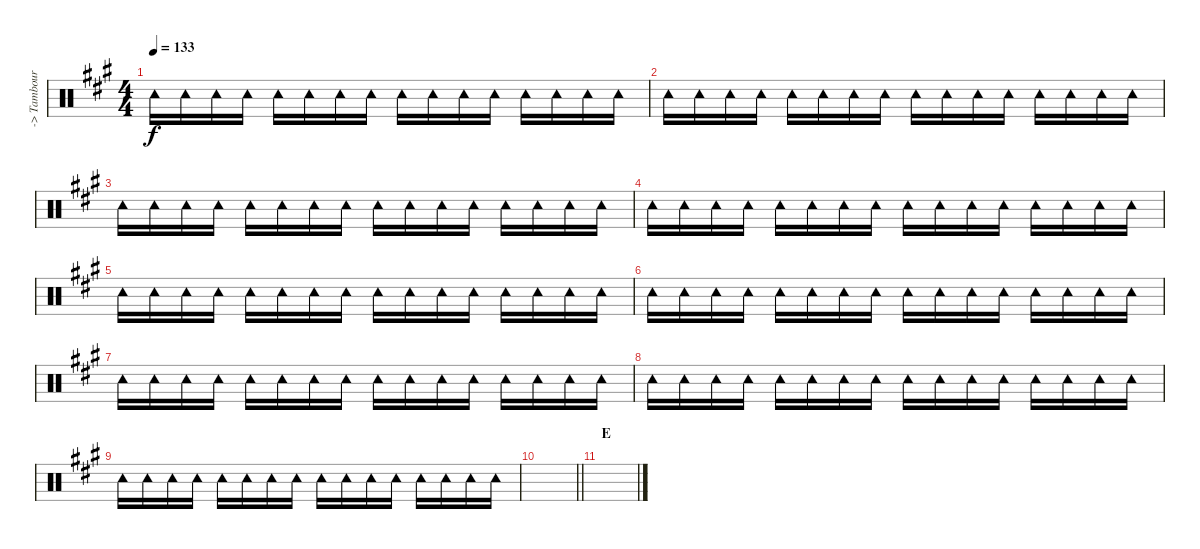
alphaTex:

\track ("-> Tambourine" "-> Tambour") {instrument percussion}
\staff {score}
\articulation defaults
\ts (4 4)
\tempo 133
\clef neutral
\ks a "Tambourine (hit)".16{dy f} "Tambourine (hit)".16 "Tambourine (hit)".16 "Tambourine (hit)".16 "Tambourine (hit)".16 "Tambourine (hit)".16 "Tambourine (hit)".16 "Tambourine (hit)".16 "Tambourine (hit)".16 "Tambourine (hit)".16 "Tambourine (hit)".16 "Tambourine (hit)".16 "Tambourine (hit)".16 "Tambourine (hit)".16 "Tambourine (hit)".16 "Tambourine (hit)".16
|
"Tambourine (hit)".16 "Tambourine (hit)".16 "Tambourine (hit)".16 "Tambourine (hit)".16 "Tambourine (hit)".16 "Tambourine (hit)".16 "Tambourine (hit)".16 "Tambourine (hit)".16 "Tambourine (hit)".16 "Tambourine (hit)".16 "Tambourine (hit)".16 "Tambourine (hit)".16 "Tambourine (hit)".16 "Tambourine (hit)".16 "Tambourine (hit)".16 "Tambourine (hit)".16 |
"Tambourine (hit)".16 "Tambourine (hit)".16 "Tambourine (hit)".16 "Tambourine (hit)".16 "Tambourine (hit)".16 "Tambourine (hit)".16 "Tambourine (hit)".16 "Tambourine (hit)".16 "Tambourine (hit)".16 "Tambourine (hit)".16 "Tambourine (hit)".16 "Tambourine (hit)".16 "Tambourine (hit)".16 "Tambourine (hit)".16 "Tambourine (hit)".16 "Tambourine (hit)".16 |
"Tambourine (hit)".16 "Tambourine (hit)".16 "Tambourine (hit)".16 "Tambourine (hit)".16 "Tambourine (hit)".16 "Tambourine (hit)".16 "Tambourine (hit)".16 "Tambourine (hit)".16 "Tambourine (hit)".16 "Tambourine (hit)".16 "Tambourine (hit)".16 "Tambourine (hit)".16 "Tambourine (hit)".16 "Tambourine (hit)".16 "Tambourine (hit)".16 "Tambourine (hit)".16 |
"Tambourine (hit)".16 "Tambourine (hit)".16 "Tambourine (hit)".16 "Tambourine (hit)".16 "Tambourine (hit)".16 "Tambourine (hit)".16 "Tambourine (hit)".16 "Tambourine (hit)".16 "Tambourine (hit)".16 "Tambourine (hit)".16 "Tambourine (hit)".16 "Tambourine (hit)".16 "Tambourine (hit)".16 "Tambourine (hit)".16 "Tambourine (hit)".16 "Tambourine (hit)".16 |
"Tambourine (hit)".16 "Tambourine (hit)".16 "Tambourine (hit)".16 "Tambourine (hit)".16 "Tambourine (hit)".16 "Tambourine (hit)".16 "Tambourine (hit)".16 "Tambourine (hit)".16 "Tambourine (hit)".16 "Tambourine (hit)".16 "Tambourine (hit)".16 "Tambourine (hit)".16 "Tambourine (hit)".16 "Tambourine (hit)".16 "Tambourine (hit)".16 "Tambourine (hit)".16 |
"Tambourine (hit)".16 "Tambourine (hit)".16 "Tambourine (hit)".16 "Tambourine (hit)".16 "Tambourine (hit)".16 "Tambourine (hit)".16 "Tambourine (hit)".16 "Tambourine (hit)".16 "Tambourine (hit)".16 "Tambourine (hit)".16 "Tambourine (hit)".16 "Tambourine (hit)".16 "Tambourine (hit)".16 "Tambourine (hit)".16 "Tambourine (hit)".16 "Tambourine (hit)".16 |
"Tambourine (hit)".16 "Tambourine (hit)".16 "Tambourine (hit)".16 "Tambourine (hit)".16 "Tambourine (hit)".16 "Tambourine (hit)".16 "Tambourine (hit)".16 "Tambourine (hit)".16 "Tambourine (hit)".16 "Tambourine (hit)".16 "Tambourine (hit)".16 "Tambourine (hit)".16 "Tambourine (hit)".16 "Tambourine (hit)".16 "Tambourine (hit)".16 "Tambourine (hit)".16 |
"Tambourine (hit)".16 "Tambourine (hit)".16 "Tambourine (hit)".16 "Tambourine (hit)".16 "Tambourine (hit)".16 "Tambourine (hit)".16 "Tambourine (hit)".16 "Tambourine (hit)".16 "Tambourine (hit)".16 "Tambourine (hit)".16 "Tambourine (hit)".16 "Tambourine (hit)".16 "Tambourine (hit)".16 "Tambourine (hit)".16 "Tambourine (hit)".16 "Tambourine (hit)".16 |
\barLineRight lightlight
|
\section ("" "E")
